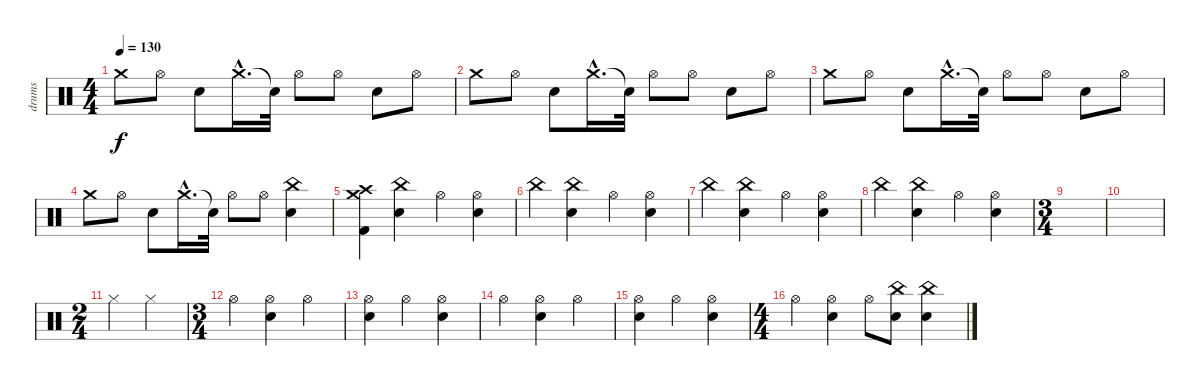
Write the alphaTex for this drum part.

\track ("drums" "drums") {instrument percussion}
\staff {score}
\articulation defaults
\ts (4 4)
\tempo 130
\clef neutral
\ks c "Crash medium (hit)".8{dy f} "Hi-Hat (open)".8 "Snare (hit) 2".8 "Crash medium (hit)"{hac}.16{d} "Snare (hit)"{t}.32 "Hi-Hat (open)".8 "Hi-Hat (open)".8 "Snare (hit) 2".8 "Hi-Hat (open)".8
|
"Crash medium (hit)".8 "Hi-Hat (open)".8 "Snare (hit) 2".8 "Crash medium (hit)"{hac}.16{d} "Snare (hit)"{t}.32 "Hi-Hat (open)".8 "Hi-Hat (open)".8 "Snare (hit) 2".8 "Hi-Hat (open)".8 |
"Crash medium (hit)".8 "Hi-Hat (open)".8 "Snare (hit) 2".8 "Crash medium (hit)"{hac}.16{d} "Snare (hit)"{t}.32 "Hi-Hat (open)".8 "Hi-Hat (open)".8 "Snare (hit) 2".8 "Hi-Hat (open)".8 |
"Crash medium (hit)".8 "Hi-Hat (open)".8 "Snare (hit) 2".8 "Crash medium (hit)"{hac}.16{d} "Snare (hit)"{t}.32 "Hi-Hat (open)".8 "Hi-Hat (open)".8 ("China (hit)" "Snare (hit) 2").4 |
("Crash medium (hit)" "Crash high (hit)" "Kick (hit) 2").4 ("China (hit)" "Snare (hit) 2").4 "Hi-Hat (open)".4 ("Snare (hit) 2" "Hi-Hat (open)").4 |
"China (hit)".4 ("China (hit)" "Snare (hit) 2").4 "Hi-Hat (open)".4 ("Snare (hit) 2" "Hi-Hat (open)").4 |
"China (hit)".4 ("China (hit)" "Snare (hit) 2").4 "Hi-Hat (open)".4 ("Snare (hit) 2" "Hi-Hat (open)").4 |
"China (hit)".4 ("China (hit)" "Snare (hit) 2").4 "Hi-Hat (open)".4 ("Snare (hit) 2" "Hi-Hat (open)").4 |
\ts (3 4)
|
|
\ts (2 4)
"Hi-Hat (closed)".4 "Hi-Hat (closed)".4 |
\ts (3 4)
"Hi-Hat (open)".4 ("Snare (hit) 2" "Hi-Hat (open)").4 "Hi-Hat (open)".4 |
("Snare (hit) 2" "Hi-Hat (open)").4 "Hi-Hat (open)".4 ("Snare (hit) 2" "Hi-Hat (open)").4 |
"Hi-Hat (open)".4 ("Snare (hit) 2" "Hi-Hat (open)").4 "Hi-Hat (open)".4 |
("Snare (hit) 2" "Hi-Hat (open)").4 "Hi-Hat (open)".4 ("Snare (hit) 2" "Hi-Hat (open)").4 |
\ts (4 4)
"Hi-Hat (open)".4 ("Snare (hit) 2" "Hi-Hat (open)").4 "Hi-Hat (open)".8 ("China (hit)" "Snare (hit) 2").8 ("China (hit)" "Snare (hit) 2").4
